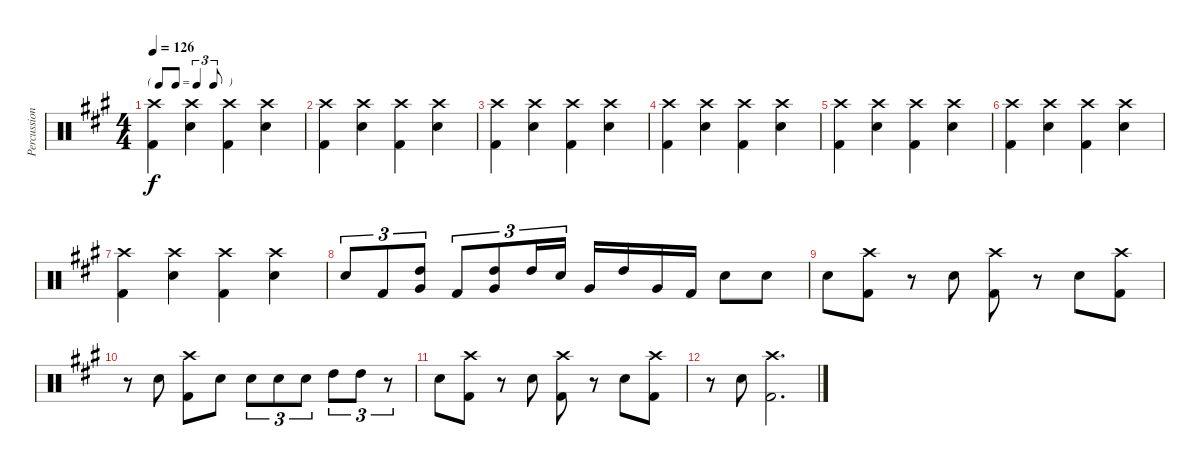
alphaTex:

\track ("Percussion" "Percussion") {instrument percussion}
\staff {score}
\articulation defaults
\ts (4 4)
\tf triplet8th
\tempo 126
\clef neutral
\ks a
("Crash high (hit)" "Kick (hit) 2").4{dy f} ("Crash high (hit)" "Snare (hit) 2").4 ("Crash high (hit)" "Kick (hit) 2").4 ("Crash high (hit)" "Snare (hit) 2").4 |
("Crash high (hit)" "Kick (hit) 2").4 ("Crash high (hit)" "Snare (hit) 2").4 ("Crash high (hit)" "Kick (hit) 2").4 ("Crash high (hit)" "Snare (hit) 2").4 |
("Crash high (hit)" "Kick (hit) 2").4 ("Crash high (hit)" "Snare (hit) 2").4 ("Crash high (hit)" "Kick (hit) 2").4 ("Crash high (hit)" "Snare (hit) 2").4 |
("Crash high (hit)" "Kick (hit) 2").4 ("Crash high (hit)" "Snare (hit) 2").4 ("Crash high (hit)" "Kick (hit) 2").4 ("Crash high (hit)" "Snare (hit) 2").4 |
("Crash high (hit)" "Kick (hit) 2").4 ("Crash high (hit)" "Snare (hit) 2").4 ("Crash high (hit)" "Kick (hit) 2").4 ("Crash high (hit)" "Snare (hit) 2").4 |
("Crash high (hit)" "Kick (hit) 2").4 ("Crash high (hit)" "Snare (hit) 2").4 ("Crash high (hit)" "Kick (hit) 2").4 ("Crash high (hit)" "Snare (hit) 2").4 |
("Crash high (hit)" "Kick (hit) 2").4 ("Crash high (hit)" "Snare (hit) 2").4 ("Crash high (hit)" "Kick (hit) 2").4 ("Crash high (hit)" "Snare (hit) 2").4 |
"Snare (hit) 2".8{tu (3 2)} "Kick (hit) 2".8{tu (3 2)} ("High Tom (hit)" "Very Low Tom (hit)").8{tu (3 2)} "Kick (hit) 2".8{tu (3 2)} ("High Tom (hit)" "Very Low Tom (hit)").8{tu (3 2)} "High Tom (hit)".16{tu (3 2)} "Snare (hit) 2".16{tu (3 2)} "Very Low Tom (hit)".16 "High Tom (hit)".16 "Very Low Tom (hit)".16 "Kick (hit) 2".16 "Snare (hit) 2".8 "Snare (hit) 2".8 |
"Snare (hit) 2".8 ("Crash high (hit)" "Kick (hit) 2").8 r.8 "Snare (hit) 2".8 ("Crash high (hit)" "Kick (hit) 2").8 r.8 "Snare (hit) 2".8 ("Crash high (hit)" "Kick (hit) 2").8 |
r.8 "Snare (hit) 2".8 ("Crash high (hit)" "Kick (hit) 2").8 "Snare (hit) 2".8 "Snare (hit) 2".8{tu (3 2)} "Snare (hit) 2".8{tu (3 2)} "Snare (hit) 2".8{tu (3 2)} "High Tom (hit)".8{tu (3 2)} "High Tom (hit)".8{tu (3 2)} r.8{tu (3 2)} |
"Snare (hit) 2".8 ("Crash high (hit)" "Kick (hit) 2").8 r.8 "Snare (hit) 2".8 ("Crash high (hit)" "Kick (hit) 2").8 r.8 "Snare (hit) 2".8 ("Crash high (hit)" "Kick (hit) 2").8 |
r.8 "Snare (hit) 2".8 ("Crash high (hit)" "Kick (hit) 2").2{d}
